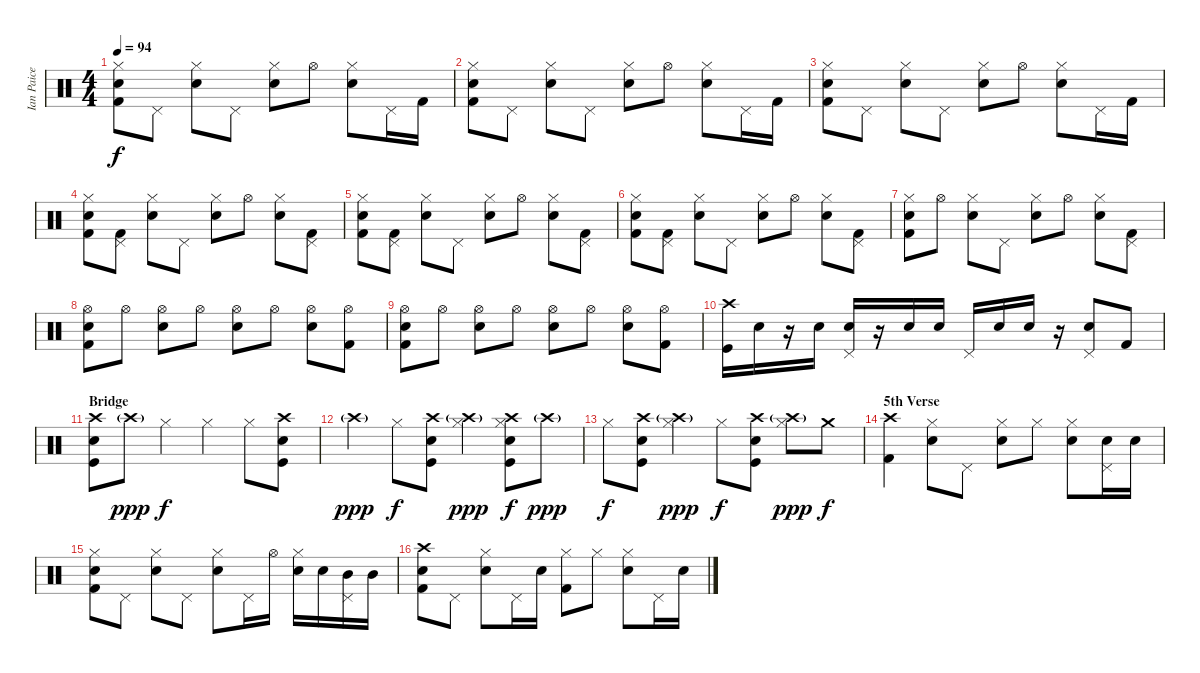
\track ("Ian Paice (Drums)" "Ian Paice ") {instrument percussion}
\staff {score}
\articulation defaults
\ts (4 4)
\tempo 94
\clef neutral
\ks c
("Hi-Hat (closed)" "Electric Snare (hit)" "Kick (hit) 2").8{dy f} "Pedal Hi-Hat (hit)".8 ("Hi-Hat (closed)" "Electric Snare (hit)").8 "Pedal Hi-Hat (hit)".8 ("Hi-Hat (closed)" "Electric Snare (hit)").8 "Hi-Hat (open)".8 ("Hi-Hat (closed)" "Electric Snare (hit)").8 "Pedal Hi-Hat (hit)".16 "Kick (hit) 2".16 |
("Hi-Hat (closed)" "Electric Snare (hit)" "Kick (hit) 2").8 "Pedal Hi-Hat (hit)".8 ("Hi-Hat (closed)" "Electric Snare (hit)").8 "Pedal Hi-Hat (hit)".8 ("Hi-Hat (closed)" "Electric Snare (hit)").8 "Hi-Hat (open)".8 ("Hi-Hat (closed)" "Electric Snare (hit)").8 "Pedal Hi-Hat (hit)".16 "Kick (hit) 2".16 |
("Hi-Hat (closed)" "Electric Snare (hit)" "Kick (hit) 2").8 "Pedal Hi-Hat (hit)".8 ("Hi-Hat (closed)" "Electric Snare (hit)").8 "Pedal Hi-Hat (hit)".8 ("Hi-Hat (closed)" "Electric Snare (hit)").8 "Hi-Hat (open)".8 ("Hi-Hat (closed)" "Electric Snare (hit)").8 "Pedal Hi-Hat (hit)".16 "Kick (hit) 2".16 |
("Hi-Hat (closed)" "Electric Snare (hit)" "Kick (hit) 2").8 ("Pedal Hi-Hat (hit)" "Kick (hit) 2").8 ("Hi-Hat (closed)" "Electric Snare (hit)").8 "Pedal Hi-Hat (hit)".8 ("Hi-Hat (closed)" "Electric Snare (hit)").8 "Hi-Hat (open)".8 ("Hi-Hat (closed)" "Electric Snare (hit)").8 ("Pedal Hi-Hat (hit)" "Kick (hit) 2").8 |
("Hi-Hat (closed)" "Electric Snare (hit)" "Kick (hit) 2").8 ("Pedal Hi-Hat (hit)" "Kick (hit) 2").8 ("Hi-Hat (closed)" "Electric Snare (hit)").8 "Pedal Hi-Hat (hit)".8 ("Hi-Hat (closed)" "Electric Snare (hit)").8 "Hi-Hat (open)".8 ("Hi-Hat (closed)" "Electric Snare (hit)").8 ("Pedal Hi-Hat (hit)" "Kick (hit) 2").8 |
("Hi-Hat (closed)" "Electric Snare (hit)" "Kick (hit) 2").8 ("Pedal Hi-Hat (hit)" "Kick (hit) 2").8 ("Hi-Hat (closed)" "Electric Snare (hit)").8 "Pedal Hi-Hat (hit)".8 ("Hi-Hat (closed)" "Electric Snare (hit)").8 "Hi-Hat (open)".8 ("Hi-Hat (closed)" "Electric Snare (hit)").8 ("Pedal Hi-Hat (hit)" "Kick (hit) 2").8 |
("Hi-Hat (closed)" "Electric Snare (hit)" "Kick (hit) 2").8 "Hi-Hat (open)".8 ("Hi-Hat (closed)" "Electric Snare (hit)").8 "Pedal Hi-Hat (hit)".8 ("Hi-Hat (closed)" "Electric Snare (hit)").8 "Hi-Hat (open)".8 ("Hi-Hat (closed)" "Electric Snare (hit)").8 ("Pedal Hi-Hat (hit)" "Kick (hit) 2").8 |
("Hi-Hat (open)" "Electric Snare (hit)" "Kick (hit) 2").8 "Hi-Hat (open)".8 ("Hi-Hat (open)" "Electric Snare (hit)").8 "Hi-Hat (open)".8 ("Hi-Hat (open)" "Electric Snare (hit)").8 "Hi-Hat (open)".8 ("Hi-Hat (open)" "Electric Snare (hit)").8 ("Hi-Hat (open)" "Kick (hit) 2").8 |
("Hi-Hat (open)" "Electric Snare (hit)" "Kick (hit) 2").8 "Hi-Hat (open)".8 ("Hi-Hat (open)" "Electric Snare (hit)").8 "Hi-Hat (open)".8 ("Hi-Hat (open)" "Electric Snare (hit)").8 "Hi-Hat (open)".8 ("Hi-Hat (open)" "Electric Snare (hit)").8 ("Hi-Hat (open)" "Kick (hit) 2").8 |
("Crash high (hit)" "Kick (hit)").16 "Electric Snare (hit)".16 r.16 "Electric Snare (hit)".16 ("Pedal Hi-Hat (hit)" "Electric Snare (hit)").16 r.16 "Electric Snare (hit)".16 "Electric Snare (hit)".16 "Pedal Hi-Hat (hit)".16 "Electric Snare (hit)".16 "Electric Snare (hit)".16 r.16 ("Pedal Hi-Hat (hit)" "Electric Snare (hit)").8 "Kick (hit) 2".8 |
\section ("" "Bridge")
("Crash high (hit)" "Electric Snare (hit)" "Kick (hit)").8 "Crash high (hit)"{g}.8{dy ppp} "Hi-Hat (closed)".4{dy f} "Hi-Hat (closed)".4 "Hi-Hat (closed)".8 ("Crash high (hit)" "Electric Snare (hit)" "Kick (hit)").8 |
"Crash high (hit)"{g}.4{dy ppp} "Hi-Hat (closed)".8{dy f} ("Crash high (hit)" "Electric Snare (hit)" "Kick (hit)").8 ("Crash high (hit)"{g} "Hi-Hat (closed)").4{dy ppp} ("Crash high (hit)" "Hi-Hat (closed)" "Electric Snare (hit)" "Kick (hit)").8{dy f} "Crash high (hit)"{g}.8{dy ppp} |
"Hi-Hat (closed)".8{dy f} ("Crash high (hit)" "Electric Snare (hit)" "Kick (hit)").8 ("Crash high (hit)"{g} "Hi-Hat (closed)").4{dy ppp} "Hi-Hat (closed)".8{dy f} ("Crash high (hit)" "Electric Snare (hit)" "Kick (hit)").8 ("Crash high (hit)"{g} "Hi-Hat (closed)").8{dy ppp} "Crash medium (hit)".8{dy f} |
\section ("" "5th Verse")
("Crash high (hit)" "Kick (hit) 2").4 ("Hi-Hat (closed)" "Electric Snare (hit)").8 "Pedal Hi-Hat (hit)".8 ("Hi-Hat (closed)" "Electric Snare (hit)").8 "Hi-Hat (closed)".8 ("Hi-Hat (closed)" "Electric Snare (hit)").8 ("Pedal Hi-Hat (hit)" "Electric Snare (hit)").16 "Electric Snare (hit)".16 |
("Hi-Hat (closed)" "Electric Snare (hit)" "Kick (hit) 2").8 "Pedal Hi-Hat (hit)".8 ("Hi-Hat (closed)" "Electric Snare (hit)").8 "Pedal Hi-Hat (hit)".8 ("Hi-Hat (closed)" "Electric Snare (hit)").8 "Pedal Hi-Hat (hit)".16 "Hi-Hat (open)".16 ("Hi-Hat (closed)" "Electric Snare (hit)").16 "Electric Snare (hit)".16 ("Pedal Hi-Hat (hit)" "Mid Tom (hit)").16 "Mid Tom (hit)".16 |
("Crash high (hit)" "Electric Snare (hit)" "Kick (hit) 2").8 "Pedal Hi-Hat (hit)".8 ("Hi-Hat (closed)" "Electric Snare (hit)").8 "Pedal Hi-Hat (hit)".16 "Electric Snare (hit)".16 ("Hi-Hat (closed)" "Kick (hit) 2").8 "Hi-Hat (closed)".8 ("Hi-Hat (closed)" "Electric Snare (hit)").8 "Pedal Hi-Hat (hit)".16 "Electric Snare (hit)".16
